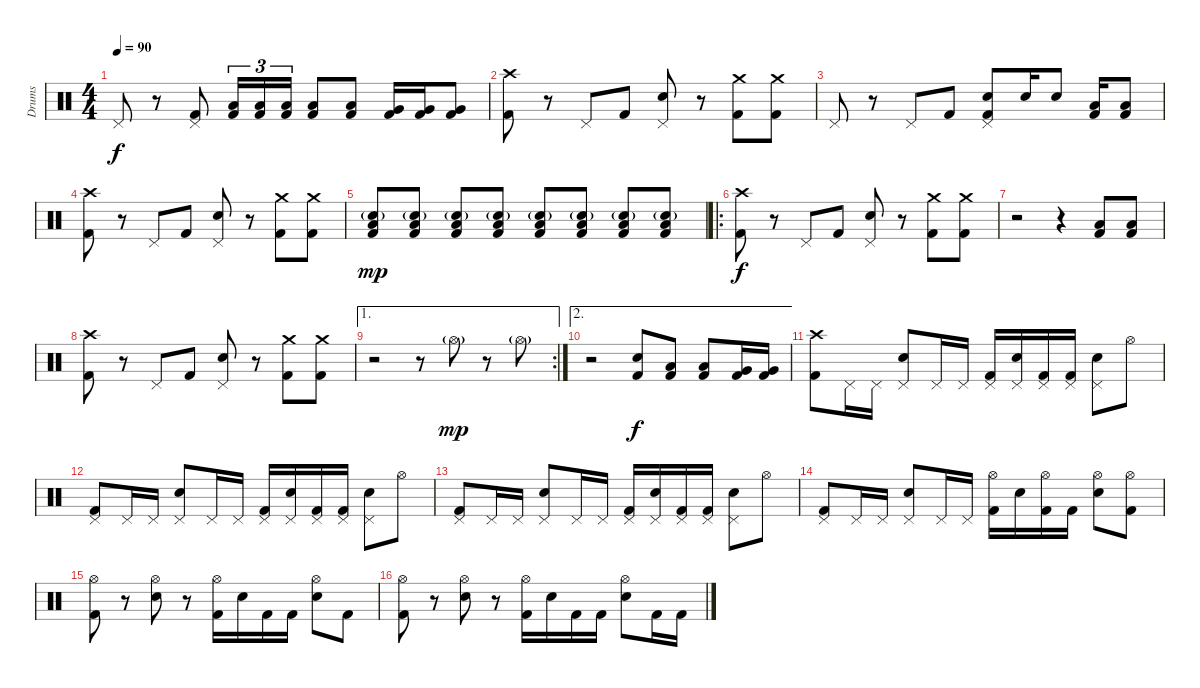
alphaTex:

\track ("Drums" "Drums") {instrument percussion}
\staff {score}
\articulation defaults
\ts (4 4)
\tempo 90
\clef neutral
\ks c "Pedal Hi-Hat (hit)".8{dy f}
r.8 ("Pedal Hi-Hat (hit)" "Kick (hit) 2").8 ("Low Tom (hit)" "Kick (hit) 2").16{tu (3 2)} ("Low Tom (hit)" "Kick (hit) 2").16{tu (3 2)} ("Low Tom (hit)" "Kick (hit) 2").16{tu (3 2)} ("Low Tom (hit)" "Kick (hit) 2").8 ("Low Tom (hit)" "Kick (hit) 2").8 ("Very Low Tom (hit)" "Kick (hit) 2").16 ("Very Low Tom (hit)" "Kick (hit) 2").16 ("Very Low Tom (hit)" "Kick (hit) 2").8 |
("Crash high (hit)" "Kick (hit) 2").8 r.8 "Pedal Hi-Hat (hit)".8 "Kick (hit) 2".8 ("Pedal Hi-Hat (hit)" "Electric Snare (hit)").8 r.8 ("Crash medium (hit)" "Kick (hit) 2").8 ("Crash medium (hit)" "Kick (hit) 2").8 |
"Pedal Hi-Hat (hit)".8 r.8 "Pedal Hi-Hat (hit)".8 "Kick (hit) 2".8 ("Pedal Hi-Hat (hit)" "Electric Snare (hit)" "Kick (hit) 2").8 "Electric Snare (hit)".16 "Electric Snare (hit)".8 ("Low Tom (hit)" "Kick (hit) 2").16 ("Low Tom (hit)" "Kick (hit) 2").8 |
("Crash high (hit)" "Kick (hit) 2").8 r.8 "Pedal Hi-Hat (hit)".8 "Kick (hit) 2".8 ("Pedal Hi-Hat (hit)" "Electric Snare (hit)").8 r.8 ("Crash medium (hit)" "Kick (hit) 2").8 ("Crash medium (hit)" "Kick (hit) 2").8 |
("Electric Snare (hit)"{g} "Low Tom (hit)" "Kick (hit) 2").8{dy mp} ("Electric Snare (hit)"{g} "Low Tom (hit)" "Kick (hit) 2").8 ("Electric Snare (hit)"{g} "Low Tom (hit)" "Kick (hit) 2").8 ("Electric Snare (hit)"{g} "Low Tom (hit)" "Kick (hit) 2").8 ("Electric Snare (hit)"{g} "Low Tom (hit)" "Kick (hit) 2").8 ("Electric Snare (hit)"{g} "Low Tom (hit)" "Kick (hit) 2").8 ("Electric Snare (hit)"{g} "Low Tom (hit)" "Kick (hit) 2").8 ("Electric Snare (hit)"{g} "Low Tom (hit)" "Kick (hit) 2").8 |
\ro
("Crash high (hit)" "Kick (hit) 2").8{dy f} r.8 "Pedal Hi-Hat (hit)".8 "Kick (hit) 2".8 ("Pedal Hi-Hat (hit)" "Electric Snare (hit)").8 r.8 ("Crash medium (hit)" "Kick (hit) 2").8 ("Crash medium (hit)" "Kick (hit) 2").8 |
r.2 r.4 ("Low Tom (hit)" "Kick (hit) 2").8 ("Low Tom (hit)" "Kick (hit) 2").8 |
("Crash high (hit)" "Kick (hit) 2").8 r.8 "Pedal Hi-Hat (hit)".8 "Kick (hit) 2".8 ("Pedal Hi-Hat (hit)" "Electric Snare (hit)").8 r.8 ("Crash medium (hit)" "Kick (hit) 2").8 ("Crash medium (hit)" "Kick (hit) 2").8 |
\ae 1
\rc 2
r.2 r.8 "Hi-Hat (open)"{g}.8{dy mp} r.8 "Hi-Hat (open)"{g}.8 |
\ae 2
r.2 ("Electric Snare (hit)" "Kick (hit) 2").8{dy f} ("Low Tom (hit)" "Kick (hit) 2").8 ("Low Tom (hit)" "Kick (hit) 2").8 ("Very Low Tom (hit)" "Kick (hit) 2").16 ("Very Low Tom (hit)" "Kick (hit) 2").16 |
("Crash high (hit)" "Kick (hit) 2").8 "Pedal Hi-Hat (hit)".16 "Pedal Hi-Hat (hit)".16 ("Pedal Hi-Hat (hit)" "Electric Snare (hit)").8 "Pedal Hi-Hat (hit)".16 "Pedal Hi-Hat (hit)".16 ("Pedal Hi-Hat (hit)" "Kick (hit) 2").16 ("Pedal Hi-Hat (hit)" "Electric Snare (hit)").16 ("Pedal Hi-Hat (hit)" "Kick (hit) 2").16 ("Pedal Hi-Hat (hit)" "Kick (hit) 2").16 ("Pedal Hi-Hat (hit)" "Electric Snare (hit)").8 "Hi-Hat (open)".8 |
("Pedal Hi-Hat (hit)" "Kick (hit) 2").8 "Pedal Hi-Hat (hit)".16 "Pedal Hi-Hat (hit)".16 ("Pedal Hi-Hat (hit)" "Electric Snare (hit)").8 "Pedal Hi-Hat (hit)".16 "Pedal Hi-Hat (hit)".16 ("Pedal Hi-Hat (hit)" "Kick (hit) 2").16 ("Pedal Hi-Hat (hit)" "Electric Snare (hit)").16 ("Pedal Hi-Hat (hit)" "Kick (hit) 2").16 ("Pedal Hi-Hat (hit)" "Kick (hit) 2").16 ("Pedal Hi-Hat (hit)" "Electric Snare (hit)").8 "Hi-Hat (open)".8 |
("Pedal Hi-Hat (hit)" "Kick (hit) 2").8 "Pedal Hi-Hat (hit)".16 "Pedal Hi-Hat (hit)".16 ("Pedal Hi-Hat (hit)" "Electric Snare (hit)").8 "Pedal Hi-Hat (hit)".16 "Pedal Hi-Hat (hit)".16 ("Pedal Hi-Hat (hit)" "Kick (hit) 2").16 ("Pedal Hi-Hat (hit)" "Electric Snare (hit)").16 ("Pedal Hi-Hat (hit)" "Kick (hit) 2").16 ("Pedal Hi-Hat (hit)" "Kick (hit) 2").16 ("Pedal Hi-Hat (hit)" "Electric Snare (hit)").8 "Hi-Hat (open)".8 |
("Pedal Hi-Hat (hit)" "Kick (hit) 2").8 "Pedal Hi-Hat (hit)".16 "Pedal Hi-Hat (hit)".16 ("Pedal Hi-Hat (hit)" "Electric Snare (hit)").8 "Pedal Hi-Hat (hit)".16 "Pedal Hi-Hat (hit)".16 ("Hi-Hat (open)" "Kick (hit) 2").16 "Electric Snare (hit)".16 ("Hi-Hat (open)" "Kick (hit) 2").16 "Kick (hit) 2".16 ("Hi-Hat (open)" "Electric Snare (hit)").8 ("Hi-Hat (open)" "Kick (hit) 2").8 |
("Hi-Hat (open)" "Kick (hit) 2").8 r.8 ("Hi-Hat (open)" "Electric Snare (hit)").8 r.8 ("Hi-Hat (open)" "Kick (hit) 2").16 "Electric Snare (hit)".16 "Kick (hit) 2".16 "Kick (hit) 2".16 ("Hi-Hat (open)" "Electric Snare (hit)").8 "Kick (hit) 2".8 |
("Hi-Hat (open)" "Kick (hit) 2").8 r.8 ("Hi-Hat (open)" "Electric Snare (hit)").8 r.8 ("Hi-Hat (open)" "Kick (hit) 2").16 "Electric Snare (hit)".16 "Kick (hit) 2".16 "Kick (hit) 2".16 ("Hi-Hat (open)" "Electric Snare (hit)").8 "Kick (hit) 2".16 "Kick (hit) 2".16
